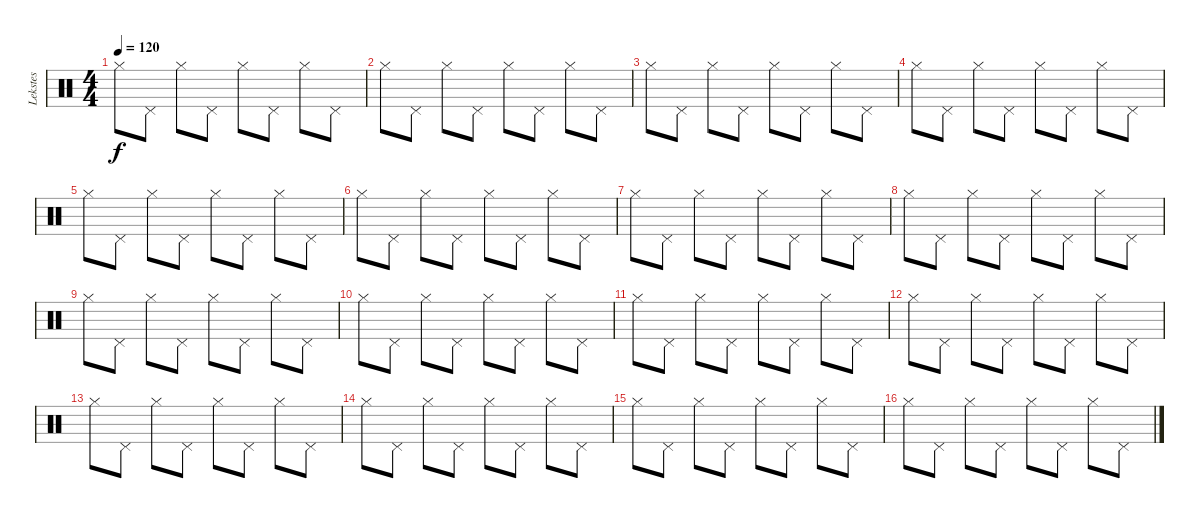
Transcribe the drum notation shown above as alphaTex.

\track ("Lekstes" "Lekstes") {instrument percussion}
\staff {score}
\articulation defaults
\ts (4 4)
\tempo 120
\clef neutral
\ks c "Hi-Hat (closed)".8{dy f} "Pedal Hi-Hat (hit)".8 "Hi-Hat (closed)".8 "Pedal Hi-Hat (hit)".8 "Hi-Hat (closed)".8 "Pedal Hi-Hat (hit)".8 "Hi-Hat (closed)".8 "Pedal Hi-Hat (hit)".8
|
"Hi-Hat (closed)".8 "Pedal Hi-Hat (hit)".8 "Hi-Hat (closed)".8 "Pedal Hi-Hat (hit)".8 "Hi-Hat (closed)".8 "Pedal Hi-Hat (hit)".8 "Hi-Hat (closed)".8 "Pedal Hi-Hat (hit)".8 |
"Hi-Hat (closed)".8 "Pedal Hi-Hat (hit)".8 "Hi-Hat (closed)".8 "Pedal Hi-Hat (hit)".8 "Hi-Hat (closed)".8 "Pedal Hi-Hat (hit)".8 "Hi-Hat (closed)".8 "Pedal Hi-Hat (hit)".8 |
"Hi-Hat (closed)".8 "Pedal Hi-Hat (hit)".8 "Hi-Hat (closed)".8 "Pedal Hi-Hat (hit)".8 "Hi-Hat (closed)".8 "Pedal Hi-Hat (hit)".8 "Hi-Hat (closed)".8 "Pedal Hi-Hat (hit)".8 |
"Hi-Hat (closed)".8 "Pedal Hi-Hat (hit)".8 "Hi-Hat (closed)".8 "Pedal Hi-Hat (hit)".8 "Hi-Hat (closed)".8 "Pedal Hi-Hat (hit)".8 "Hi-Hat (closed)".8 "Pedal Hi-Hat (hit)".8 |
"Hi-Hat (closed)".8 "Pedal Hi-Hat (hit)".8 "Hi-Hat (closed)".8 "Pedal Hi-Hat (hit)".8 "Hi-Hat (closed)".8 "Pedal Hi-Hat (hit)".8 "Hi-Hat (closed)".8 "Pedal Hi-Hat (hit)".8 |
"Hi-Hat (closed)".8 "Pedal Hi-Hat (hit)".8 "Hi-Hat (closed)".8 "Pedal Hi-Hat (hit)".8 "Hi-Hat (closed)".8 "Pedal Hi-Hat (hit)".8 "Hi-Hat (closed)".8 "Pedal Hi-Hat (hit)".8 |
"Hi-Hat (closed)".8 "Pedal Hi-Hat (hit)".8 "Hi-Hat (closed)".8 "Pedal Hi-Hat (hit)".8 "Hi-Hat (closed)".8 "Pedal Hi-Hat (hit)".8 "Hi-Hat (closed)".8 "Pedal Hi-Hat (hit)".8 |
"Hi-Hat (closed)".8 "Pedal Hi-Hat (hit)".8 "Hi-Hat (closed)".8 "Pedal Hi-Hat (hit)".8 "Hi-Hat (closed)".8 "Pedal Hi-Hat (hit)".8 "Hi-Hat (closed)".8 "Pedal Hi-Hat (hit)".8 |
"Hi-Hat (closed)".8 "Pedal Hi-Hat (hit)".8 "Hi-Hat (closed)".8 "Pedal Hi-Hat (hit)".8 "Hi-Hat (closed)".8 "Pedal Hi-Hat (hit)".8 "Hi-Hat (closed)".8 "Pedal Hi-Hat (hit)".8 |
"Hi-Hat (closed)".8 "Pedal Hi-Hat (hit)".8 "Hi-Hat (closed)".8 "Pedal Hi-Hat (hit)".8 "Hi-Hat (closed)".8 "Pedal Hi-Hat (hit)".8 "Hi-Hat (closed)".8 "Pedal Hi-Hat (hit)".8 |
"Hi-Hat (closed)".8 "Pedal Hi-Hat (hit)".8 "Hi-Hat (closed)".8 "Pedal Hi-Hat (hit)".8 "Hi-Hat (closed)".8 "Pedal Hi-Hat (hit)".8 "Hi-Hat (closed)".8 "Pedal Hi-Hat (hit)".8 |
"Hi-Hat (closed)".8 "Pedal Hi-Hat (hit)".8 "Hi-Hat (closed)".8 "Pedal Hi-Hat (hit)".8 "Hi-Hat (closed)".8 "Pedal Hi-Hat (hit)".8 "Hi-Hat (closed)".8 "Pedal Hi-Hat (hit)".8 |
"Hi-Hat (closed)".8 "Pedal Hi-Hat (hit)".8 "Hi-Hat (closed)".8 "Pedal Hi-Hat (hit)".8 "Hi-Hat (closed)".8 "Pedal Hi-Hat (hit)".8 "Hi-Hat (closed)".8 "Pedal Hi-Hat (hit)".8 |
"Hi-Hat (closed)".8 "Pedal Hi-Hat (hit)".8 "Hi-Hat (closed)".8 "Pedal Hi-Hat (hit)".8 "Hi-Hat (closed)".8 "Pedal Hi-Hat (hit)".8 "Hi-Hat (closed)".8 "Pedal Hi-Hat (hit)".8 |
"Hi-Hat (closed)".8 "Pedal Hi-Hat (hit)".8 "Hi-Hat (closed)".8 "Pedal Hi-Hat (hit)".8 "Hi-Hat (closed)".8 "Pedal Hi-Hat (hit)".8 "Hi-Hat (closed)".8 "Pedal Hi-Hat (hit)".8
